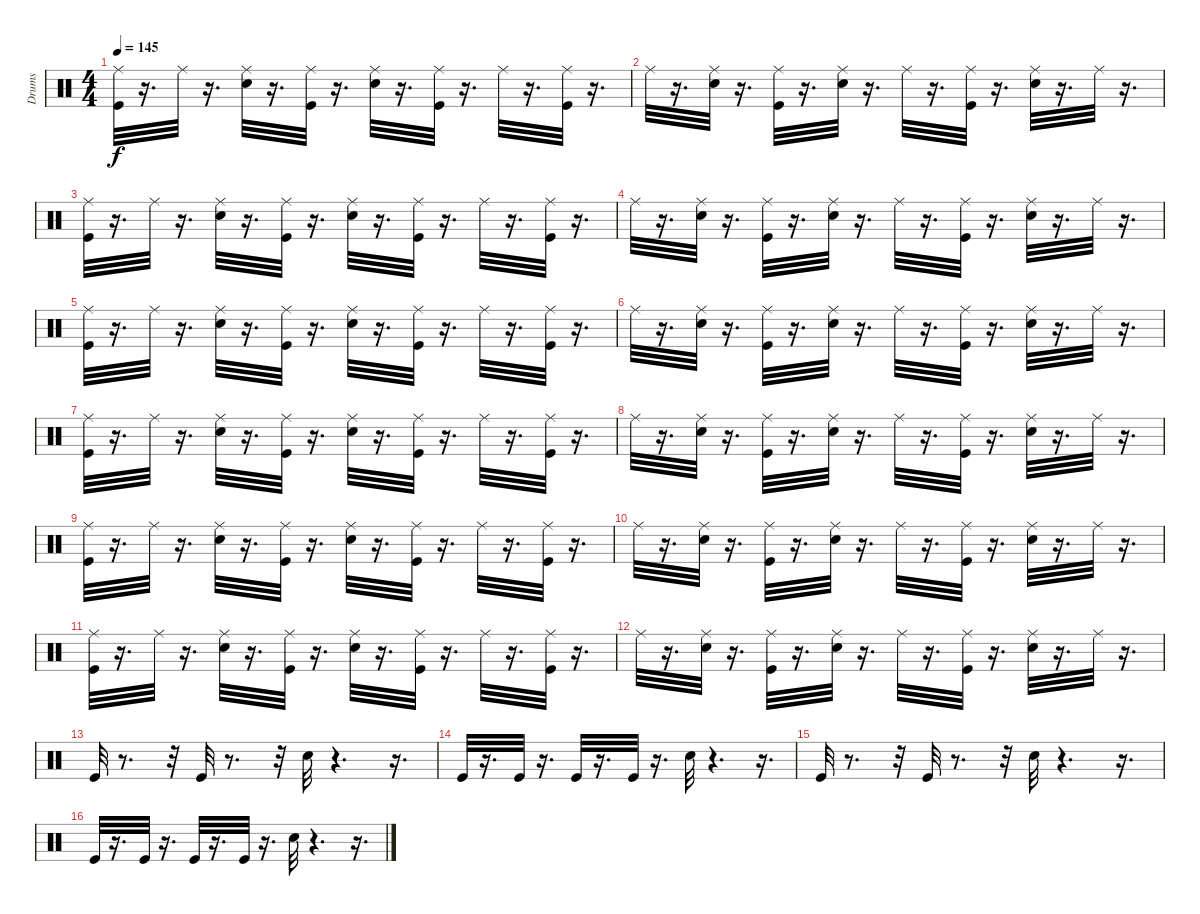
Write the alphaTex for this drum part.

\track ("Drums" "Drums") {instrument percussion}
\staff {score}
\articulation defaults
\ts (4 4)
\tempo 145
\clef neutral
\ks c
("Kick (hit)" "Ride (middle)").32{dy f} r.16{d} "Ride (middle)".32 r.16{d} ("Snare (hit) 2" "Ride (middle)").32 r.16{d} ("Ride (middle)" "Kick (hit)").32 r.16{d} ("Snare (hit) 2" "Ride (middle)").32 r.16{d} ("Kick (hit)" "Ride (middle)").32 r.16{d} "Ride (middle)".32 r.16{d} ("Ride (middle)" "Kick (hit)").32 r.16{d} |
"Ride (middle)".32 r.16{d} ("Ride (middle)" "Snare (hit) 2").32 r.16{d} ("Ride (middle)" "Kick (hit)").32 r.16{d} ("Ride (middle)" "Snare (hit) 2").32 r.16{d} "Ride (middle)".32 r.16{d} ("Ride (middle)" "Kick (hit)").32 r.16{d} ("Ride (middle)" "Snare (hit) 2").32 r.16{d} "Ride (middle)".32 r.16{d} |
("Kick (hit)" "Ride (middle)").32 r.16{d} "Ride (middle)".32 r.16{d} ("Snare (hit) 2" "Ride (middle)").32 r.16{d} ("Ride (middle)" "Kick (hit)").32 r.16{d} ("Snare (hit) 2" "Ride (middle)").32 r.16{d} ("Kick (hit)" "Ride (middle)").32 r.16{d} "Ride (middle)".32 r.16{d} ("Ride (middle)" "Kick (hit)").32 r.16{d} |
"Ride (middle)".32 r.16{d} ("Ride (middle)" "Snare (hit) 2").32 r.16{d} ("Ride (middle)" "Kick (hit)").32 r.16{d} ("Ride (middle)" "Snare (hit) 2").32 r.16{d} "Ride (middle)".32 r.16{d} ("Ride (middle)" "Kick (hit)").32 r.16{d} ("Ride (middle)" "Snare (hit) 2").32 r.16{d} "Ride (middle)".32 r.16{d} |
("Ride (middle)" "Kick (hit)").32 r.16{d} "Ride (middle)".32 r.16{d} ("Snare (hit) 2" "Ride (middle)").32 r.16{d} ("Ride (middle)" "Kick (hit)").32 r.16{d} ("Snare (hit) 2" "Ride (middle)").32 r.16{d} ("Kick (hit)" "Ride (middle)").32 r.16{d} "Ride (middle)".32 r.16{d} ("Ride (middle)" "Kick (hit)").32 r.16{d} |
"Ride (middle)".32 r.16{d} ("Ride (middle)" "Snare (hit) 2").32 r.16{d} ("Ride (middle)" "Kick (hit)").32 r.16{d} ("Ride (middle)" "Snare (hit) 2").32 r.16{d} "Ride (middle)".32 r.16{d} ("Ride (middle)" "Kick (hit)").32 r.16{d} ("Ride (middle)" "Snare (hit) 2").32 r.16{d} "Ride (middle)".32 r.16{d} |
("Kick (hit)" "Ride (middle)").32 r.16{d} "Ride (middle)".32 r.16{d} ("Snare (hit) 2" "Ride (middle)").32 r.16{d} ("Ride (middle)" "Kick (hit)").32 r.16{d} ("Snare (hit) 2" "Ride (middle)").32 r.16{d} ("Kick (hit)" "Ride (middle)").32 r.16{d} "Ride (middle)".32 r.16{d} ("Ride (middle)" "Kick (hit)").32 r.16{d} |
"Ride (middle)".32 r.16{d} ("Ride (middle)" "Snare (hit) 2").32 r.16{d} ("Ride (middle)" "Kick (hit)").32 r.16{d} ("Ride (middle)" "Snare (hit) 2").32 r.16{d} "Ride (middle)".32 r.16{d} ("Ride (middle)" "Kick (hit)").32 r.16{d} ("Ride (middle)" "Snare (hit) 2").32 r.16{d} "Ride (middle)".32 r.16{d} |
("Kick (hit)" "Ride (middle)").32 r.16{d} "Ride (middle)".32 r.16{d} ("Snare (hit) 2" "Ride (middle)").32 r.16{d} ("Ride (middle)" "Kick (hit)").32 r.16{d} ("Snare (hit) 2" "Ride (middle)").32 r.16{d} ("Kick (hit)" "Ride (middle)").32 r.16{d} "Ride (middle)".32 r.16{d} ("Ride (middle)" "Kick (hit)").32 r.16{d} |
"Ride (middle)".32 r.16{d} ("Ride (middle)" "Snare (hit) 2").32 r.16{d} ("Ride (middle)" "Kick (hit)").32 r.16{d} ("Ride (middle)" "Snare (hit) 2").32 r.16{d} "Ride (middle)".32 r.16{d} ("Ride (middle)" "Kick (hit)").32 r.16{d} ("Ride (middle)" "Snare (hit) 2").32 r.16{d} "Ride (middle)".32 r.16{d} |
("Kick (hit)" "Ride (middle)").32 r.16{d} "Ride (middle)".32 r.16{d} ("Snare (hit) 2" "Ride (middle)").32 r.16{d} ("Ride (middle)" "Kick (hit)").32 r.16{d} ("Snare (hit) 2" "Ride (middle)").32 r.16{d} ("Kick (hit)" "Ride (middle)").32 r.16{d} "Ride (middle)".32 r.16{d} ("Ride (middle)" "Kick (hit)").32 r.16{d} |
"Ride (middle)".32 r.16{d} ("Ride (middle)" "Snare (hit) 2").32 r.16{d} ("Ride (middle)" "Kick (hit)").32 r.16{d} ("Ride (middle)" "Snare (hit) 2").32 r.16{d} "Ride (middle)".32 r.16{d} ("Ride (middle)" "Kick (hit)").32 r.16{d} ("Ride (middle)" "Snare (hit) 2").32 r.16{d} "Ride (middle)".32 r.16{d} |
"Kick (hit)".32 r.8{d} r.32 "Kick (hit)".32 r.8{d} r.32 "Snare (hit) 2".32 r.4{d} r.16{d} |
"Kick (hit)".32 r.16{d} "Kick (hit)".32 r.16{d} "Kick (hit)".32 r.16{d} "Kick (hit)".32 r.16{d} "Snare (hit) 2".32 r.4{d} r.16{d} |
"Kick (hit)".32 r.8{d} r.32 "Kick (hit)".32 r.8{d} r.32 "Snare (hit) 2".32 r.4{d} r.16{d} |
"Kick (hit)".32 r.16{d} "Kick (hit)".32 r.16{d} "Kick (hit)".32 r.16{d} "Kick (hit)".32 r.16{d} "Snare (hit) 2".32 r.4{d} r.16{d}
